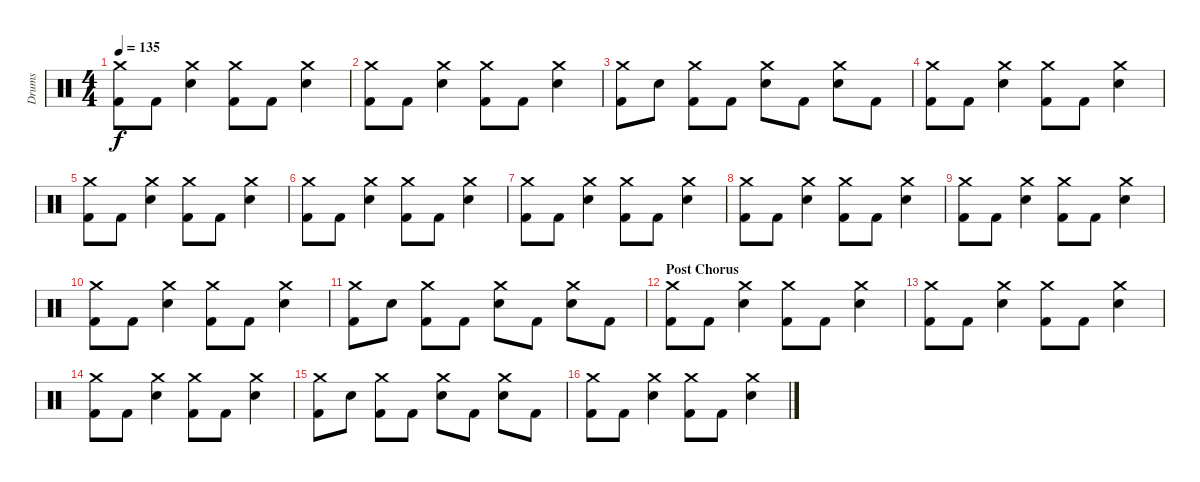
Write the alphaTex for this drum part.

\track ("Drums" "Drums") {instrument percussion}
\staff {score}
\articulation defaults
\ts (4 4)
\tempo 135
\clef neutral
\ks c
("Crash medium (hit)" "Kick (hit) 2").8{dy f} "Kick (hit) 2".8 ("Crash medium (hit)" "Electric Snare (hit)").4 ("Crash medium (hit)" "Kick (hit) 2").8 "Kick (hit) 2".8 ("Crash medium (hit)" "Electric Snare (hit)").4 |
("Crash medium (hit)" "Kick (hit) 2").8 "Kick (hit) 2".8 ("Crash medium (hit)" "Electric Snare (hit)").4 ("Crash medium (hit)" "Kick (hit) 2").8 "Kick (hit) 2".8 ("Crash medium (hit)" "Electric Snare (hit)").4 |
("Crash medium (hit)" "Kick (hit) 2").8 "Electric Snare (hit)".8 ("Crash medium (hit)" "Kick (hit) 2").8 "Kick (hit) 2".8 ("Crash medium (hit)" "Electric Snare (hit)").8 "Kick (hit) 2".8 ("Crash medium (hit)" "Electric Snare (hit)").8 "Kick (hit) 2".8 |
("Crash medium (hit)" "Kick (hit) 2").8 "Kick (hit) 2".8 ("Crash medium (hit)" "Electric Snare (hit)").4 ("Crash medium (hit)" "Kick (hit) 2").8 "Kick (hit) 2".8 ("Crash medium (hit)" "Electric Snare (hit)").4 |
("Crash medium (hit)" "Kick (hit) 2").8 "Kick (hit) 2".8 ("Crash medium (hit)" "Electric Snare (hit)").4 ("Crash medium (hit)" "Kick (hit) 2").8 "Kick (hit) 2".8 ("Crash medium (hit)" "Electric Snare (hit)").4 |
("Crash medium (hit)" "Kick (hit) 2").8 "Kick (hit) 2".8 ("Crash medium (hit)" "Electric Snare (hit)").4 ("Crash medium (hit)" "Kick (hit) 2").8 "Kick (hit) 2".8 ("Crash medium (hit)" "Electric Snare (hit)").4 |
("Crash medium (hit)" "Kick (hit) 2").8 "Kick (hit) 2".8 ("Crash medium (hit)" "Electric Snare (hit)").4 ("Crash medium (hit)" "Kick (hit) 2").8 "Kick (hit) 2".8 ("Crash medium (hit)" "Electric Snare (hit)").4 |
("Crash medium (hit)" "Kick (hit) 2").8 "Kick (hit) 2".8 ("Crash medium (hit)" "Electric Snare (hit)").4 ("Crash medium (hit)" "Kick (hit) 2").8 "Kick (hit) 2".8 ("Crash medium (hit)" "Electric Snare (hit)").4 |
("Crash medium (hit)" "Kick (hit) 2").8 "Kick (hit) 2".8 ("Crash medium (hit)" "Electric Snare (hit)").4 ("Crash medium (hit)" "Kick (hit) 2").8 "Kick (hit) 2".8 ("Crash medium (hit)" "Electric Snare (hit)").4 |
("Crash medium (hit)" "Kick (hit) 2").8 "Kick (hit) 2".8 ("Crash medium (hit)" "Electric Snare (hit)").4 ("Crash medium (hit)" "Kick (hit) 2").8 "Kick (hit) 2".8 ("Crash medium (hit)" "Electric Snare (hit)").4 |
("Crash medium (hit)" "Kick (hit) 2").8 "Electric Snare (hit)".8 ("Crash medium (hit)" "Kick (hit) 2").8 "Kick (hit) 2".8 ("Crash medium (hit)" "Electric Snare (hit)").8 "Kick (hit) 2".8 ("Crash medium (hit)" "Electric Snare (hit)").8 "Kick (hit) 2".8 |
\section ("" "Post Chorus")
("Crash medium (hit)" "Kick (hit) 2").8 "Kick (hit) 2".8 ("Crash medium (hit)" "Electric Snare (hit)").4 ("Crash medium (hit)" "Kick (hit) 2").8 "Kick (hit) 2".8 ("Crash medium (hit)" "Electric Snare (hit)").4 |
("Crash medium (hit)" "Kick (hit) 2").8 "Kick (hit) 2".8 ("Crash medium (hit)" "Electric Snare (hit)").4 ("Crash medium (hit)" "Kick (hit) 2").8 "Kick (hit) 2".8 ("Crash medium (hit)" "Electric Snare (hit)").4 |
("Crash medium (hit)" "Kick (hit) 2").8 "Kick (hit) 2".8 ("Crash medium (hit)" "Electric Snare (hit)").4 ("Crash medium (hit)" "Kick (hit) 2").8 "Kick (hit) 2".8 ("Crash medium (hit)" "Electric Snare (hit)").4 |
("Crash medium (hit)" "Kick (hit) 2").8 "Electric Snare (hit)".8 ("Crash medium (hit)" "Kick (hit) 2").8 "Kick (hit) 2".8 ("Crash medium (hit)" "Electric Snare (hit)").8 "Kick (hit) 2".8 ("Crash medium (hit)" "Electric Snare (hit)").8 "Kick (hit) 2".8 |
("Crash medium (hit)" "Kick (hit) 2").8 "Kick (hit) 2".8 ("Crash medium (hit)" "Electric Snare (hit)").4 ("Crash medium (hit)" "Kick (hit) 2").8 "Kick (hit) 2".8 ("Crash medium (hit)" "Electric Snare (hit)").4
